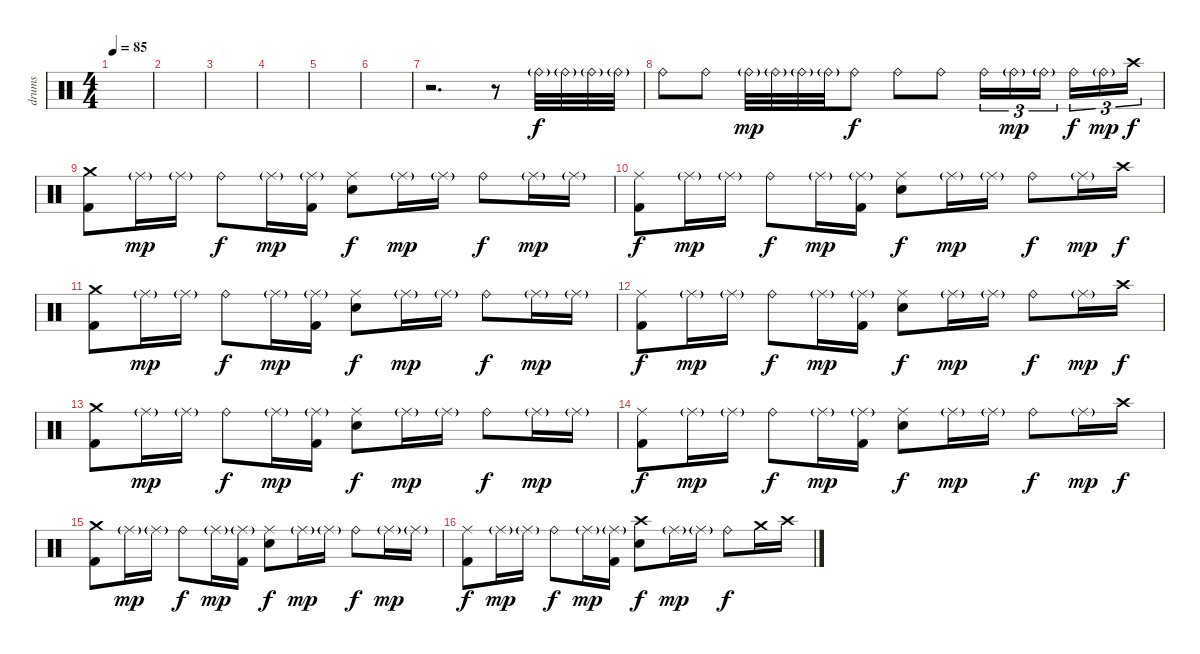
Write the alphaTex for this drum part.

\track ("drums" "drums") {instrument percussion}
\staff {score}
\articulation defaults
\ts (4 4)
\tempo 85
\clef neutral
\ks c
|
|
|
|
|
|
r.2{d} r.8 "Ride (bell)"{g}.32 "Ride (bell)"{g}.32 "Ride (bell)"{g}.32 "Ride (bell)"{g}.32 |
"Ride (bell)".8{dy f} "Ride (bell)".8 "Ride (bell)"{g}.32{dy mp} "Ride (bell)"{g}.32 "Ride (bell)"{g}.32 "Ride (bell)"{g}.32 "Ride (bell)".8{dy f} "Ride (bell)".8 "Ride (bell)".8 "Ride (bell)".16{tu (3 2)} "Ride (bell)"{g}.16{tu (3 2) dy mp} "Ride (bell)"{g}.16{tu (3 2) beam splitsecondary} "Ride (bell)".16{tu (3 2) dy f} "Ride (bell)"{g}.16{tu (3 2) dy mp} "Crash high (hit)".16{tu (3 2) dy f} |
("Crash medium (hit)" "Kick (hit) 2").8 "Ride (middle)"{g}.16{dy mp} "Ride (middle)"{g}.16 "Ride (bell)".8{dy f} "Ride (middle)"{g}.16{dy mp} ("Ride (middle)"{g} "Kick (hit) 2").16 ("Ride (middle)" "Electric Snare (hit)").8{dy f} "Ride (middle)"{g}.16{dy mp} "Ride (middle)"{g}.16 "Ride (bell)".8{dy f} "Ride (middle)"{g}.16{dy mp} "Ride (middle)"{g}.16 |
("Ride (middle)" "Kick (hit) 2").8{dy f} "Ride (middle)"{g}.16{dy mp} "Ride (middle)"{g}.16 "Ride (bell)".8{dy f} "Ride (middle)"{g}.16{dy mp} ("Ride (middle)"{g} "Kick (hit) 2").16 ("Ride (middle)" "Electric Snare (hit)").8{dy f} "Ride (middle)"{g}.16{dy mp} "Ride (middle)"{g}.16 "Ride (bell)".8{dy f} "Ride (middle)"{g}.16{dy mp} "Crash high (hit)".16{dy f} |
("Crash medium (hit)" "Kick (hit) 2").8 "Ride (middle)"{g}.16{dy mp} "Ride (middle)"{g}.16 "Ride (bell)".8{dy f} "Ride (middle)"{g}.16{dy mp} ("Ride (middle)"{g} "Kick (hit) 2").16 ("Ride (middle)" "Electric Snare (hit)").8{dy f} "Ride (middle)"{g}.16{dy mp} "Ride (middle)"{g}.16 "Ride (bell)".8{dy f} "Ride (middle)"{g}.16{dy mp} "Ride (middle)"{g}.16 |
("Ride (middle)" "Kick (hit) 2").8{dy f} "Ride (middle)"{g}.16{dy mp} "Ride (middle)"{g}.16 "Ride (bell)".8{dy f} "Ride (middle)"{g}.16{dy mp} ("Ride (middle)"{g} "Kick (hit) 2").16 ("Ride (middle)" "Electric Snare (hit)").8{dy f} "Ride (middle)"{g}.16{dy mp} "Ride (middle)"{g}.16 "Ride (bell)".8{dy f} "Ride (middle)"{g}.16{dy mp} "Crash high (hit)".16{dy f} |
("Crash medium (hit)" "Kick (hit) 2").8 "Ride (middle)"{g}.16{dy mp} "Ride (middle)"{g}.16 "Ride (bell)".8{dy f} "Ride (middle)"{g}.16{dy mp} ("Ride (middle)"{g} "Kick (hit) 2").16 ("Ride (middle)" "Electric Snare (hit)").8{dy f} "Ride (middle)"{g}.16{dy mp} "Ride (middle)"{g}.16 "Ride (bell)".8{dy f} "Ride (middle)"{g}.16{dy mp} "Ride (middle)"{g}.16 |
("Ride (middle)" "Kick (hit) 2").8{dy f} "Ride (middle)"{g}.16{dy mp} "Ride (middle)"{g}.16 "Ride (bell)".8{dy f} "Ride (middle)"{g}.16{dy mp} ("Ride (middle)"{g} "Kick (hit) 2").16 ("Ride (middle)" "Electric Snare (hit)").8{dy f} "Ride (middle)"{g}.16{dy mp} "Ride (middle)"{g}.16 "Ride (bell)".8{dy f} "Ride (middle)"{g}.16{dy mp} "Crash high (hit)".16{dy f} |
("Crash medium (hit)" "Kick (hit) 2").8 "Ride (middle)"{g}.16{dy mp} "Ride (middle)"{g}.16 "Ride (bell)".8{dy f} "Ride (middle)"{g}.16{dy mp} ("Ride (middle)"{g} "Kick (hit) 2").16 ("Ride (middle)" "Electric Snare (hit)").8{dy f} "Ride (middle)"{g}.16{dy mp} "Ride (middle)"{g}.16 "Ride (bell)".8{dy f} "Ride (middle)"{g}.16{dy mp} "Ride (middle)"{g}.16 |
("Ride (middle)" "Kick (hit) 2").8{dy f} "Ride (middle)"{g}.16{dy mp} "Ride (middle)"{g}.16 "Ride (bell)".8{dy f} "Ride (middle)"{g}.16{dy mp} ("Ride (middle)"{g} "Kick (hit) 2").16 ("Crash high (hit)" "Electric Snare (hit)").8{dy f} "Ride (middle)"{g}.16{dy mp} "Ride (middle)"{g}.16 "Ride (bell)".8{dy f} "Crash medium (hit)".16 "Crash high (hit)".16
